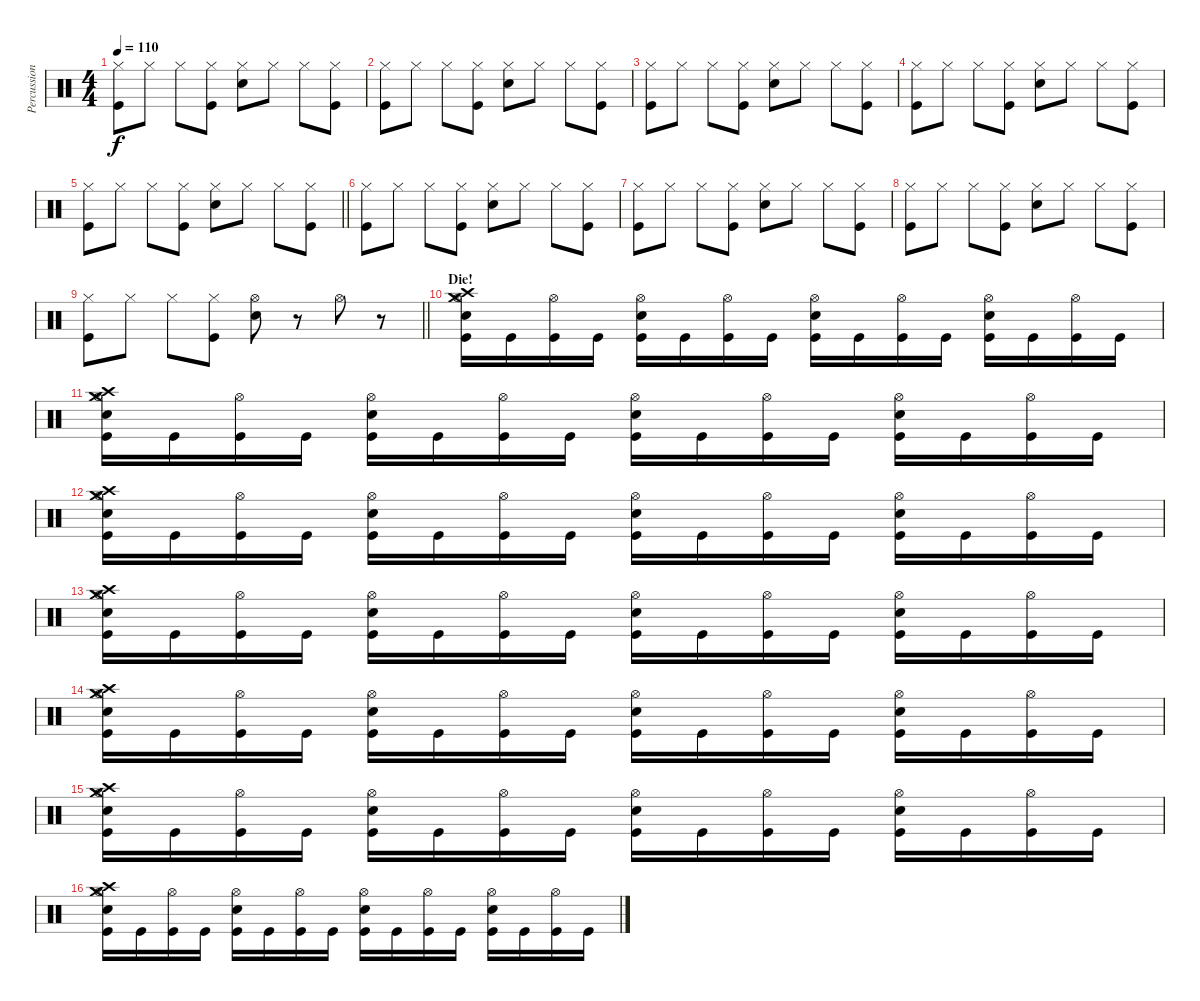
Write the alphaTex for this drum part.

\track ("Percussion" "Percussion") {instrument percussion}
\staff {score}
\articulation defaults
\ts (4 4)
\tempo 110
\clef neutral
\ks c
("Hi-Hat (closed)" "Kick (hit)").8{dy f} "Hi-Hat (closed)".8 "Hi-Hat (closed)".8 ("Hi-Hat (closed)" "Kick (hit)").8 ("Hi-Hat (closed)" "Snare (hit) 2").8 "Hi-Hat (closed)".8 "Hi-Hat (closed)".8 ("Hi-Hat (closed)" "Kick (hit)").8 |
("Hi-Hat (closed)" "Kick (hit)").8 "Hi-Hat (closed)".8 "Hi-Hat (closed)".8 ("Hi-Hat (closed)" "Kick (hit)").8 ("Hi-Hat (closed)" "Snare (hit) 2").8 "Hi-Hat (closed)".8 "Hi-Hat (closed)".8 ("Hi-Hat (closed)" "Kick (hit)").8 |
("Hi-Hat (closed)" "Kick (hit)").8 "Hi-Hat (closed)".8 "Hi-Hat (closed)".8 ("Hi-Hat (closed)" "Kick (hit)").8 ("Hi-Hat (closed)" "Snare (hit) 2").8 "Hi-Hat (closed)".8 "Hi-Hat (closed)".8 ("Hi-Hat (closed)" "Kick (hit)").8 |
("Hi-Hat (closed)" "Kick (hit)").8 "Hi-Hat (closed)".8 "Hi-Hat (closed)".8 ("Hi-Hat (closed)" "Kick (hit)").8 ("Hi-Hat (closed)" "Snare (hit) 2").8 "Hi-Hat (closed)".8 "Hi-Hat (closed)".8 ("Hi-Hat (closed)" "Kick (hit)").8 |
\barLineRight lightlight
("Hi-Hat (closed)" "Kick (hit)").8 "Hi-Hat (closed)".8 "Hi-Hat (closed)".8 ("Hi-Hat (closed)" "Kick (hit)").8 ("Hi-Hat (closed)" "Snare (hit) 2").8 "Hi-Hat (closed)".8 "Hi-Hat (closed)".8 ("Hi-Hat (closed)" "Kick (hit)").8 |
("Hi-Hat (closed)" "Kick (hit)").8 "Hi-Hat (closed)".8 "Hi-Hat (closed)".8 ("Hi-Hat (closed)" "Kick (hit)").8 ("Hi-Hat (closed)" "Snare (hit) 2").8 "Hi-Hat (closed)".8 "Hi-Hat (closed)".8 ("Hi-Hat (closed)" "Kick (hit)").8 |
("Hi-Hat (closed)" "Kick (hit)").8 "Hi-Hat (closed)".8 "Hi-Hat (closed)".8 ("Hi-Hat (closed)" "Kick (hit)").8 ("Hi-Hat (closed)" "Snare (hit) 2").8 "Hi-Hat (closed)".8 "Hi-Hat (closed)".8 ("Hi-Hat (closed)" "Kick (hit)").8 |
("Hi-Hat (closed)" "Kick (hit)").8 "Hi-Hat (closed)".8 "Hi-Hat (closed)".8 ("Hi-Hat (closed)" "Kick (hit)").8 ("Hi-Hat (closed)" "Snare (hit) 2").8 "Hi-Hat (closed)".8 "Hi-Hat (closed)".8 ("Hi-Hat (closed)" "Kick (hit)").8 |
\barLineRight lightlight
("Hi-Hat (closed)" "Kick (hit)").8 "Hi-Hat (closed)".8 "Hi-Hat (closed)".8 ("Hi-Hat (closed)" "Kick (hit)").8 ("Hi-Hat (open)" "Snare (hit) 2").8 r.8 "Hi-Hat (open)".8 r.8 |
\section ("" "Die!")
("Crash high (hit)" "Crash medium (hit)" "Snare (hit) 2" "Hi-Hat (open)" "Kick (hit)").16 "Kick (hit)".16 ("Hi-Hat (open)" "Kick (hit)").16 "Kick (hit)".16 ("Hi-Hat (open)" "Snare (hit) 2" "Kick (hit)").16 "Kick (hit)".16 ("Hi-Hat (open)" "Kick (hit)").16 "Kick (hit)".16 ("Hi-Hat (open)" "Snare (hit) 2" "Kick (hit)").16 "Kick (hit)".16 ("Hi-Hat (open)" "Kick (hit)").16 "Kick (hit)".16 ("Hi-Hat (open)" "Snare (hit) 2" "Kick (hit)").16 "Kick (hit)".16 ("Hi-Hat (open)" "Kick (hit)").16 "Kick (hit)".16 |
("Crash high (hit)" "Crash medium (hit)" "Snare (hit) 2" "Hi-Hat (open)" "Kick (hit)").16 "Kick (hit)".16 ("Hi-Hat (open)" "Kick (hit)").16 "Kick (hit)".16 ("Hi-Hat (open)" "Snare (hit) 2" "Kick (hit)").16 "Kick (hit)".16 ("Hi-Hat (open)" "Kick (hit)").16 "Kick (hit)".16 ("Hi-Hat (open)" "Snare (hit) 2" "Kick (hit)").16 "Kick (hit)".16 ("Hi-Hat (open)" "Kick (hit)").16 "Kick (hit)".16 ("Hi-Hat (open)" "Snare (hit) 2" "Kick (hit)").16 "Kick (hit)".16 ("Hi-Hat (open)" "Kick (hit)").16 "Kick (hit)".16 |
("Crash high (hit)" "Crash medium (hit)" "Snare (hit) 2" "Hi-Hat (open)" "Kick (hit)").16 "Kick (hit)".16 ("Hi-Hat (open)" "Kick (hit)").16 "Kick (hit)".16 ("Hi-Hat (open)" "Snare (hit) 2" "Kick (hit)").16 "Kick (hit)".16 ("Hi-Hat (open)" "Kick (hit)").16 "Kick (hit)".16 ("Hi-Hat (open)" "Snare (hit) 2" "Kick (hit)").16 "Kick (hit)".16 ("Hi-Hat (open)" "Kick (hit)").16 "Kick (hit)".16 ("Hi-Hat (open)" "Snare (hit) 2" "Kick (hit)").16 "Kick (hit)".16 ("Hi-Hat (open)" "Kick (hit)").16 "Kick (hit)".16 |
("Crash high (hit)" "Crash medium (hit)" "Snare (hit) 2" "Hi-Hat (open)" "Kick (hit)").16 "Kick (hit)".16 ("Hi-Hat (open)" "Kick (hit)").16 "Kick (hit)".16 ("Hi-Hat (open)" "Snare (hit) 2" "Kick (hit)").16 "Kick (hit)".16 ("Hi-Hat (open)" "Kick (hit)").16 "Kick (hit)".16 ("Hi-Hat (open)" "Snare (hit) 2" "Kick (hit)").16 "Kick (hit)".16 ("Hi-Hat (open)" "Kick (hit)").16 "Kick (hit)".16 ("Hi-Hat (open)" "Snare (hit) 2" "Kick (hit)").16 "Kick (hit)".16 ("Hi-Hat (open)" "Kick (hit)").16 "Kick (hit)".16 |
("Crash high (hit)" "Crash medium (hit)" "Snare (hit) 2" "Hi-Hat (open)" "Kick (hit)").16 "Kick (hit)".16 ("Hi-Hat (open)" "Kick (hit)").16 "Kick (hit)".16 ("Hi-Hat (open)" "Snare (hit) 2" "Kick (hit)").16 "Kick (hit)".16 ("Hi-Hat (open)" "Kick (hit)").16 "Kick (hit)".16 ("Hi-Hat (open)" "Snare (hit) 2" "Kick (hit)").16 "Kick (hit)".16 ("Hi-Hat (open)" "Kick (hit)").16 "Kick (hit)".16 ("Hi-Hat (open)" "Snare (hit) 2" "Kick (hit)").16 "Kick (hit)".16 ("Hi-Hat (open)" "Kick (hit)").16 "Kick (hit)".16 |
("Crash high (hit)" "Crash medium (hit)" "Snare (hit) 2" "Hi-Hat (open)" "Kick (hit)").16 "Kick (hit)".16 ("Hi-Hat (open)" "Kick (hit)").16 "Kick (hit)".16 ("Hi-Hat (open)" "Snare (hit) 2" "Kick (hit)").16 "Kick (hit)".16 ("Hi-Hat (open)" "Kick (hit)").16 "Kick (hit)".16 ("Hi-Hat (open)" "Snare (hit) 2" "Kick (hit)").16 "Kick (hit)".16 ("Hi-Hat (open)" "Kick (hit)").16 "Kick (hit)".16 ("Hi-Hat (open)" "Snare (hit) 2" "Kick (hit)").16 "Kick (hit)".16 ("Hi-Hat (open)" "Kick (hit)").16 "Kick (hit)".16 |
("Crash high (hit)" "Crash medium (hit)" "Snare (hit) 2" "Hi-Hat (open)" "Kick (hit)").16 "Kick (hit)".16 ("Hi-Hat (open)" "Kick (hit)").16 "Kick (hit)".16 ("Hi-Hat (open)" "Snare (hit) 2" "Kick (hit)").16 "Kick (hit)".16 ("Hi-Hat (open)" "Kick (hit)").16 "Kick (hit)".16 ("Hi-Hat (open)" "Snare (hit) 2" "Kick (hit)").16 "Kick (hit)".16 ("Hi-Hat (open)" "Kick (hit)").16 "Kick (hit)".16 ("Hi-Hat (open)" "Snare (hit) 2" "Kick (hit)").16 "Kick (hit)".16 ("Hi-Hat (open)" "Kick (hit)").16 "Kick (hit)".16
